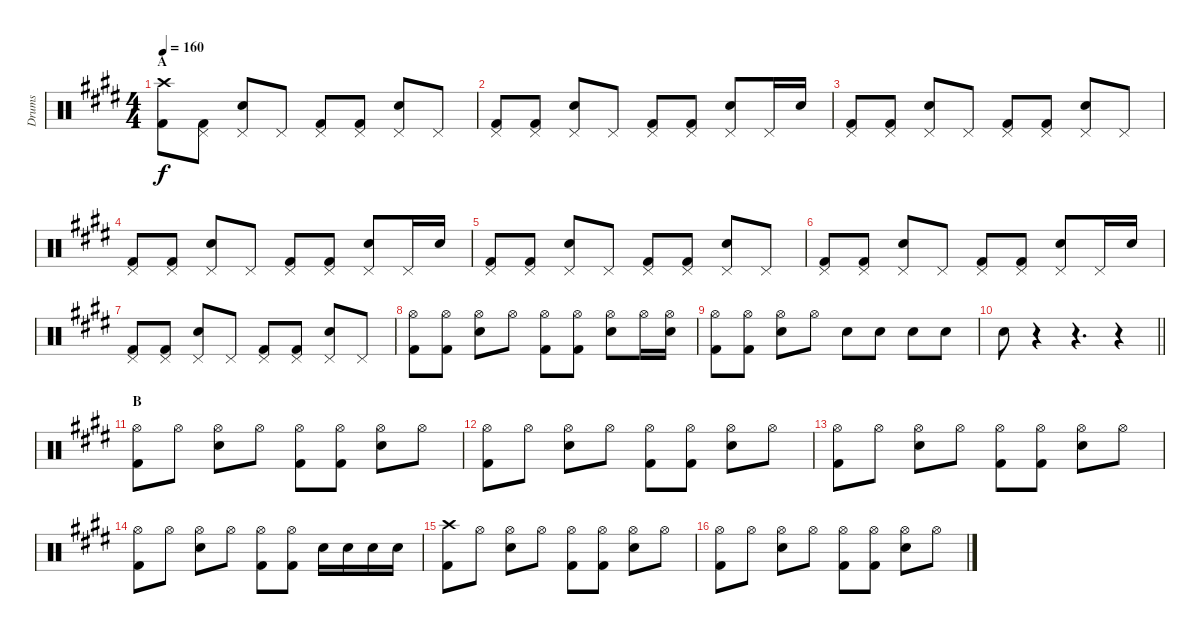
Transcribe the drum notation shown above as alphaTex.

\track ("Drums" "Drums") {instrument percussion}
\staff {score}
\articulation defaults
\ts (4 4)
\section ("" "A")
\tempo 160
\clef neutral
\ks e
("Crash high (hit)" "Kick (hit) 2").8{dy f} ("Pedal Hi-Hat (hit)" "Kick (hit) 2").8 ("Pedal Hi-Hat (hit)" "Snare (hit) 2").8 "Pedal Hi-Hat (hit)".8 ("Pedal Hi-Hat (hit)" "Kick (hit) 2").8 ("Pedal Hi-Hat (hit)" "Kick (hit) 2").8 ("Pedal Hi-Hat (hit)" "Snare (hit) 2").8 "Pedal Hi-Hat (hit)".8 |
("Pedal Hi-Hat (hit)" "Kick (hit) 2").8 ("Pedal Hi-Hat (hit)" "Kick (hit) 2").8 ("Pedal Hi-Hat (hit)" "Snare (hit) 2").8 "Pedal Hi-Hat (hit)".8 ("Pedal Hi-Hat (hit)" "Kick (hit) 2").8 ("Pedal Hi-Hat (hit)" "Kick (hit) 2").8 ("Pedal Hi-Hat (hit)" "Snare (hit) 2").8 "Pedal Hi-Hat (hit)".16 "Snare (hit) 2".16 |
("Pedal Hi-Hat (hit)" "Kick (hit) 2").8 ("Pedal Hi-Hat (hit)" "Kick (hit) 2").8 ("Pedal Hi-Hat (hit)" "Snare (hit) 2").8 "Pedal Hi-Hat (hit)".8 ("Pedal Hi-Hat (hit)" "Kick (hit) 2").8 ("Pedal Hi-Hat (hit)" "Kick (hit) 2").8 ("Pedal Hi-Hat (hit)" "Snare (hit) 2").8 "Pedal Hi-Hat (hit)".8 |
("Pedal Hi-Hat (hit)" "Kick (hit) 2").8 ("Pedal Hi-Hat (hit)" "Kick (hit) 2").8 ("Pedal Hi-Hat (hit)" "Snare (hit) 2").8 "Pedal Hi-Hat (hit)".8 ("Pedal Hi-Hat (hit)" "Kick (hit) 2").8 ("Pedal Hi-Hat (hit)" "Kick (hit) 2").8 ("Pedal Hi-Hat (hit)" "Snare (hit) 2").8 "Pedal Hi-Hat (hit)".16 "Snare (hit) 2".16 |
("Pedal Hi-Hat (hit)" "Kick (hit) 2").8 ("Pedal Hi-Hat (hit)" "Kick (hit) 2").8 ("Pedal Hi-Hat (hit)" "Snare (hit) 2").8 "Pedal Hi-Hat (hit)".8 ("Pedal Hi-Hat (hit)" "Kick (hit) 2").8 ("Pedal Hi-Hat (hit)" "Kick (hit) 2").8 ("Pedal Hi-Hat (hit)" "Snare (hit) 2").8 "Pedal Hi-Hat (hit)".8 |
("Pedal Hi-Hat (hit)" "Kick (hit) 2").8 ("Pedal Hi-Hat (hit)" "Kick (hit) 2").8 ("Pedal Hi-Hat (hit)" "Snare (hit) 2").8 "Pedal Hi-Hat (hit)".8 ("Pedal Hi-Hat (hit)" "Kick (hit) 2").8 ("Pedal Hi-Hat (hit)" "Kick (hit) 2").8 ("Pedal Hi-Hat (hit)" "Snare (hit) 2").8 "Pedal Hi-Hat (hit)".16 "Snare (hit) 2".16 |
("Pedal Hi-Hat (hit)" "Kick (hit) 2").8 ("Pedal Hi-Hat (hit)" "Kick (hit) 2").8 ("Pedal Hi-Hat (hit)" "Snare (hit) 2").8 "Pedal Hi-Hat (hit)".8 ("Pedal Hi-Hat (hit)" "Kick (hit) 2").8 ("Pedal Hi-Hat (hit)" "Kick (hit) 2").8 ("Pedal Hi-Hat (hit)" "Snare (hit) 2").8 "Pedal Hi-Hat (hit)".8 |
("Hi-Hat (open)" "Kick (hit) 2").8 ("Hi-Hat (open)" "Kick (hit) 2").8 ("Hi-Hat (open)" "Snare (hit) 2").8 "Hi-Hat (open)".8 ("Hi-Hat (open)" "Kick (hit) 2").8 ("Hi-Hat (open)" "Kick (hit) 2").8 ("Hi-Hat (open)" "Snare (hit) 2").8 "Hi-Hat (open)".16 ("Hi-Hat (open)" "Snare (hit) 2").16 |
("Hi-Hat (open)" "Kick (hit) 2").8 ("Hi-Hat (open)" "Kick (hit) 2").8 ("Hi-Hat (open)" "Snare (hit) 2").8 "Hi-Hat (open)".8 "Snare (hit) 2".8 "Snare (hit) 2".8 "Snare (hit) 2".8 "Snare (hit) 2".8 |
\barLineRight lightlight "Snare (hit) 2".8
r.4 r.4{d} r.4 |
\section ("" "B")
("Hi-Hat (open)" "Kick (hit) 2").8 "Hi-Hat (open)".8 ("Hi-Hat (open)" "Snare (hit) 2").8 "Hi-Hat (open)".8 ("Hi-Hat (open)" "Kick (hit) 2").8 ("Hi-Hat (open)" "Kick (hit) 2").8 ("Hi-Hat (open)" "Snare (hit) 2").8 "Hi-Hat (open)".8 |
("Hi-Hat (open)" "Kick (hit) 2").8 "Hi-Hat (open)".8 ("Hi-Hat (open)" "Snare (hit) 2").8 "Hi-Hat (open)".8 ("Hi-Hat (open)" "Kick (hit) 2").8 ("Hi-Hat (open)" "Kick (hit) 2").8 ("Hi-Hat (open)" "Snare (hit) 2").8 "Hi-Hat (open)".8 |
("Hi-Hat (open)" "Kick (hit) 2").8 "Hi-Hat (open)".8 ("Hi-Hat (open)" "Snare (hit) 2").8 "Hi-Hat (open)".8 ("Hi-Hat (open)" "Kick (hit) 2").8 ("Hi-Hat (open)" "Kick (hit) 2").8 ("Hi-Hat (open)" "Snare (hit) 2").8 "Hi-Hat (open)".8 |
("Hi-Hat (open)" "Kick (hit) 2").8 "Hi-Hat (open)".8 ("Hi-Hat (open)" "Snare (hit) 2").8 "Hi-Hat (open)".8 ("Hi-Hat (open)" "Kick (hit) 2").8 ("Hi-Hat (open)" "Kick (hit) 2").8 "Snare (hit) 2".16 "Snare (hit) 2".16 "Snare (hit) 2".16 "Snare (hit) 2".16 |
("Crash high (hit)" "Kick (hit) 2").8 "Hi-Hat (open)".8 ("Hi-Hat (open)" "Snare (hit) 2").8 "Hi-Hat (open)".8 ("Hi-Hat (open)" "Kick (hit) 2").8 ("Hi-Hat (open)" "Kick (hit) 2").8 ("Hi-Hat (open)" "Snare (hit) 2").8 "Hi-Hat (open)".8 |
("Hi-Hat (open)" "Kick (hit) 2").8 "Hi-Hat (open)".8 ("Hi-Hat (open)" "Snare (hit) 2").8 "Hi-Hat (open)".8 ("Hi-Hat (open)" "Kick (hit) 2").8 ("Hi-Hat (open)" "Kick (hit) 2").8 ("Hi-Hat (open)" "Snare (hit) 2").8 "Hi-Hat (open)".8
